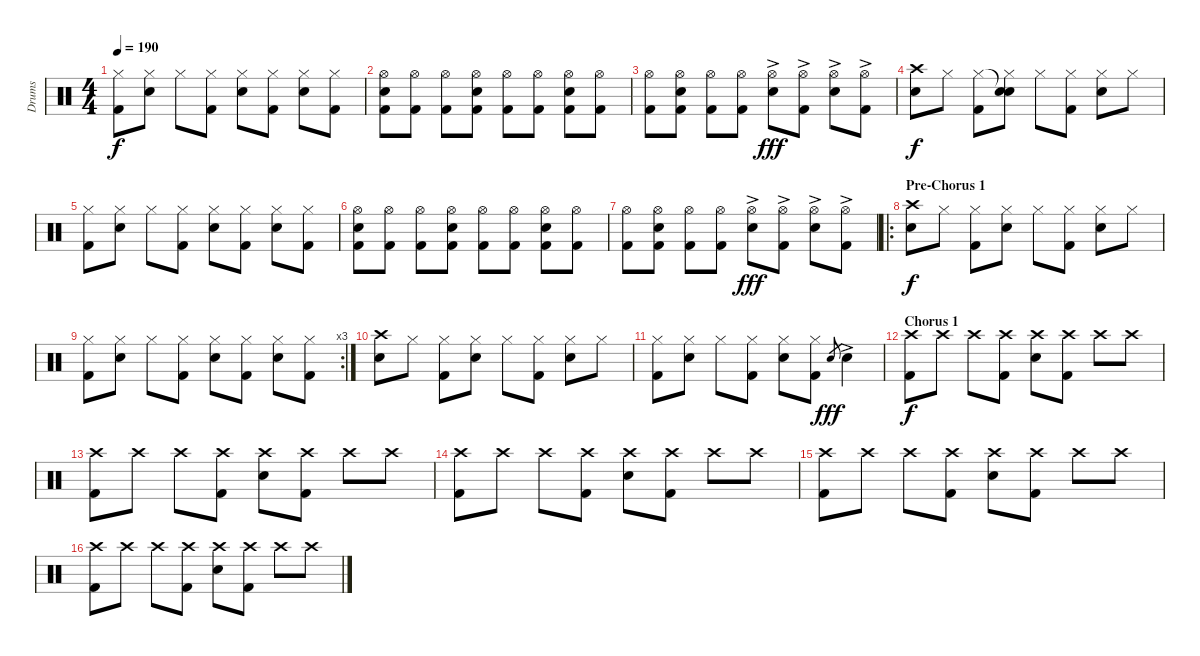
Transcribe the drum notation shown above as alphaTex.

\track ("Drums" "Drums") {instrument percussion}
\staff {score}
\articulation defaults
\ts (4 4)
\tempo 190
\clef neutral
\ks c
("Hi-Hat (closed)" "Kick (hit) 2").8{dy f} ("Hi-Hat (closed)" "Electric Snare (hit)").8 "Hi-Hat (closed)".8 ("Hi-Hat (closed)" "Kick (hit) 2").8 ("Hi-Hat (closed)" "Electric Snare (hit)").8 ("Hi-Hat (closed)" "Kick (hit) 2").8 ("Hi-Hat (closed)" "Electric Snare (hit)").8 ("Hi-Hat (closed)" "Kick (hit) 2").8 |
("Hi-Hat (open)" "Electric Snare (hit)" "Kick (hit) 2").8 ("Hi-Hat (open)" "Kick (hit) 2").8 ("Hi-Hat (open)" "Kick (hit) 2").8 ("Hi-Hat (open)" "Electric Snare (hit)" "Kick (hit) 2").8 ("Hi-Hat (open)" "Kick (hit) 2").8 ("Hi-Hat (open)" "Kick (hit) 2").8 ("Hi-Hat (open)" "Electric Snare (hit)" "Kick (hit) 2").8 ("Hi-Hat (open)" "Kick (hit) 2").8 |
("Hi-Hat (open)" "Kick (hit) 2").8 ("Hi-Hat (open)" "Electric Snare (hit)" "Kick (hit) 2").8 ("Hi-Hat (open)" "Kick (hit) 2").8 ("Hi-Hat (open)" "Kick (hit) 2").8 ("Hi-Hat (open)" "Electric Snare (hit)"{ac}).8{dy fff} ("Hi-Hat (open)" "Kick (hit) 2"{ac}).8 ("Hi-Hat (open)" "Electric Snare (hit)"{ac}).8 ("Hi-Hat (open)" "Kick (hit) 2"{ac}).8 |
("Crash high (hit)" "Electric Snare (hit)").8{dy f} "Hi-Hat (closed)".8 ("Hi-Hat (closed)" "Kick (hit) 2").8 ("Snare (hit)"{t} "Hi-Hat (closed)" "Electric Snare (hit)").8 "Hi-Hat (closed)".8 ("Hi-Hat (closed)" "Kick (hit) 2").8 ("Hi-Hat (closed)" "Electric Snare (hit)").8 "Hi-Hat (closed)".8 |
("Hi-Hat (closed)" "Kick (hit) 2").8 ("Hi-Hat (closed)" "Electric Snare (hit)").8 "Hi-Hat (closed)".8 ("Hi-Hat (closed)" "Kick (hit) 2").8 ("Hi-Hat (closed)" "Electric Snare (hit)").8 ("Hi-Hat (closed)" "Kick (hit) 2").8 ("Hi-Hat (closed)" "Electric Snare (hit)").8 ("Hi-Hat (closed)" "Kick (hit) 2").8 |
("Hi-Hat (open)" "Electric Snare (hit)" "Kick (hit) 2").8 ("Hi-Hat (open)" "Kick (hit) 2").8 ("Hi-Hat (open)" "Kick (hit) 2").8 ("Hi-Hat (open)" "Electric Snare (hit)" "Kick (hit) 2").8 ("Hi-Hat (open)" "Kick (hit) 2").8 ("Hi-Hat (open)" "Kick (hit) 2").8 ("Hi-Hat (open)" "Electric Snare (hit)" "Kick (hit) 2").8 ("Hi-Hat (open)" "Kick (hit) 2").8 |
("Hi-Hat (open)" "Kick (hit) 2").8 ("Hi-Hat (open)" "Electric Snare (hit)" "Kick (hit) 2").8 ("Hi-Hat (open)" "Kick (hit) 2").8 ("Hi-Hat (open)" "Kick (hit) 2").8 ("Hi-Hat (open)" "Electric Snare (hit)"{ac}).8{dy fff} ("Hi-Hat (open)" "Kick (hit) 2"{ac}).8 ("Hi-Hat (open)" "Electric Snare (hit)"{ac}).8 ("Hi-Hat (open)" "Kick (hit) 2"{ac}).8 |
\ro
\section ("" "Pre-Chorus 1")
("Crash high (hit)" "Electric Snare (hit)").8{dy f} "Hi-Hat (closed)".8 ("Hi-Hat (closed)" "Kick (hit) 2").8 ("Hi-Hat (closed)" "Electric Snare (hit)").8 "Hi-Hat (closed)".8 ("Hi-Hat (closed)" "Kick (hit) 2").8 ("Hi-Hat (closed)" "Electric Snare (hit)").8 "Hi-Hat (closed)".8 |
\rc 3
("Hi-Hat (closed)" "Kick (hit) 2").8 ("Hi-Hat (closed)" "Electric Snare (hit)").8 "Hi-Hat (closed)".8 ("Hi-Hat (closed)" "Kick (hit) 2").8 ("Hi-Hat (closed)" "Electric Snare (hit)").8 ("Hi-Hat (closed)" "Kick (hit) 2").8 ("Hi-Hat (closed)" "Electric Snare (hit)").8 ("Hi-Hat (closed)" "Kick (hit) 2").8 |
("Crash high (hit)" "Electric Snare (hit)").8 "Hi-Hat (closed)".8 ("Hi-Hat (closed)" "Kick (hit) 2").8 ("Hi-Hat (closed)" "Electric Snare (hit)").8 "Hi-Hat (closed)".8 ("Hi-Hat (closed)" "Kick (hit) 2").8 ("Hi-Hat (closed)" "Electric Snare (hit)").8 "Hi-Hat (closed)".8 |
("Hi-Hat (closed)" "Kick (hit) 2").8 ("Hi-Hat (closed)" "Electric Snare (hit)").8 "Hi-Hat (closed)".8 ("Hi-Hat (closed)" "Kick (hit) 2").8 ("Hi-Hat (closed)" "Electric Snare (hit)").8 ("Hi-Hat (closed)" "Kick (hit) 2").8 "Electric Snare (hit)".8{gr dy fff} "Electric Snare (hit)"{ac}.4 |
\section ("" "Chorus 1")
("Crash high (hit)" "Kick (hit) 2").8{dy f} "Crash high (hit)".8 "Crash high (hit)".8 ("Crash high (hit)" "Kick (hit) 2").8 ("Crash high (hit)" "Electric Snare (hit)").8 ("Crash high (hit)" "Kick (hit) 2").8 "Crash high (hit)".8 "Crash high (hit)".8 |
("Crash high (hit)" "Kick (hit) 2").8 "Crash high (hit)".8 "Crash high (hit)".8 ("Crash high (hit)" "Kick (hit) 2").8 ("Crash high (hit)" "Electric Snare (hit)").8 ("Crash high (hit)" "Kick (hit) 2").8 "Crash high (hit)".8 "Crash high (hit)".8 |
("Crash high (hit)" "Kick (hit) 2").8 "Crash high (hit)".8 "Crash high (hit)".8 ("Crash high (hit)" "Kick (hit) 2").8 ("Crash high (hit)" "Electric Snare (hit)").8 ("Crash high (hit)" "Kick (hit) 2").8 "Crash high (hit)".8 "Crash high (hit)".8 |
("Crash high (hit)" "Kick (hit) 2").8 "Crash high (hit)".8 "Crash high (hit)".8 ("Crash high (hit)" "Kick (hit) 2").8 ("Crash high (hit)" "Electric Snare (hit)").8 ("Crash high (hit)" "Kick (hit) 2").8 "Crash high (hit)".8 "Crash high (hit)".8 |
("Crash high (hit)" "Kick (hit) 2").8 "Crash high (hit)".8 "Crash high (hit)".8 ("Crash high (hit)" "Kick (hit) 2").8 ("Crash high (hit)" "Electric Snare (hit)").8 ("Crash high (hit)" "Kick (hit) 2").8 "Crash high (hit)".8 "Crash high (hit)".8
